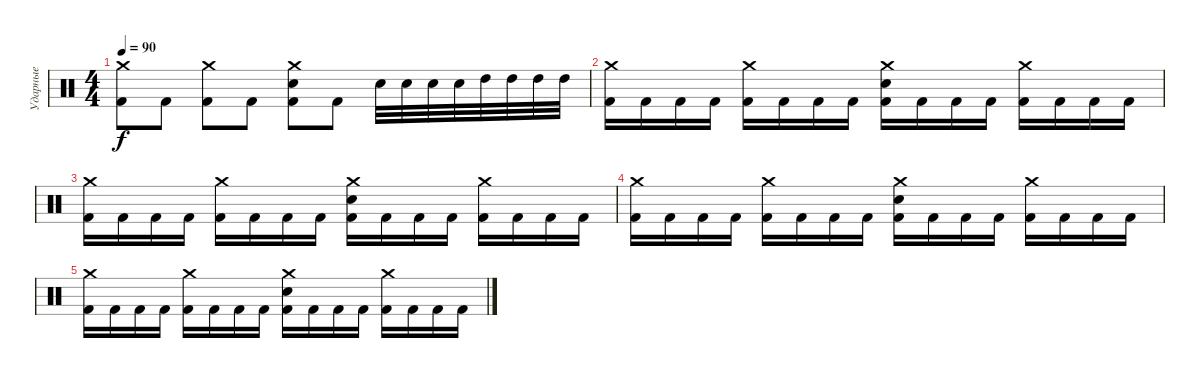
\track ("Ударные" "Ударные") {instrument percussion}
\staff {score}
\articulation defaults
\ts (4 4)
\tempo 90
\clef neutral
\ks c
("Crash medium (hit)" "Kick (hit) 2").8{dy f} "Kick (hit) 2".8 ("Crash medium (hit)" "Kick (hit) 2").8 "Kick (hit) 2".8 ("Crash medium (hit)" "Electric Snare (hit)" "Kick (hit) 2").8 "Kick (hit) 2".8 "Electric Snare (hit)".32 "Electric Snare (hit)".32 "Electric Snare (hit)".32 "Electric Snare (hit)".32 "High Tom (hit)".32 "High Tom (hit)".32 "High Tom (hit)".32 "High Tom (hit)".32 |
("Crash medium (hit)" "Kick (hit) 2").16 "Kick (hit) 2".16 "Kick (hit) 2".16 "Kick (hit) 2".16 ("Crash medium (hit)" "Kick (hit) 2").16 "Kick (hit) 2".16 "Kick (hit) 2".16 "Kick (hit) 2".16 ("Crash medium (hit)" "Electric Snare (hit)" "Kick (hit) 2").16 "Kick (hit) 2".16 "Kick (hit) 2".16 "Kick (hit) 2".16 ("Crash medium (hit)" "Kick (hit) 2").16 "Kick (hit) 2".16 "Kick (hit) 2".16 "Kick (hit) 2".16 |
("Crash medium (hit)" "Kick (hit) 2").16 "Kick (hit) 2".16 "Kick (hit) 2".16 "Kick (hit) 2".16 ("Crash medium (hit)" "Kick (hit) 2").16 "Kick (hit) 2".16 "Kick (hit) 2".16 "Kick (hit) 2".16 ("Crash medium (hit)" "Electric Snare (hit)" "Kick (hit) 2").16 "Kick (hit) 2".16 "Kick (hit) 2".16 "Kick (hit) 2".16 ("Crash medium (hit)" "Kick (hit) 2").16 "Kick (hit) 2".16 "Kick (hit) 2".16 "Kick (hit) 2".16 |
("Crash medium (hit)" "Kick (hit) 2").16 "Kick (hit) 2".16 "Kick (hit) 2".16 "Kick (hit) 2".16 ("Crash medium (hit)" "Kick (hit) 2").16 "Kick (hit) 2".16 "Kick (hit) 2".16 "Kick (hit) 2".16 ("Crash medium (hit)" "Electric Snare (hit)" "Kick (hit) 2").16 "Kick (hit) 2".16 "Kick (hit) 2".16 "Kick (hit) 2".16 ("Crash medium (hit)" "Kick (hit) 2").16 "Kick (hit) 2".16 "Kick (hit) 2".16 "Kick (hit) 2".16 |
("Crash medium (hit)" "Kick (hit) 2").16 "Kick (hit) 2".16 "Kick (hit) 2".16 "Kick (hit) 2".16 ("Crash medium (hit)" "Kick (hit) 2").16 "Kick (hit) 2".16 "Kick (hit) 2".16 "Kick (hit) 2".16 ("Crash medium (hit)" "Electric Snare (hit)" "Kick (hit) 2").16 "Kick (hit) 2".16 "Kick (hit) 2".16 "Kick (hit) 2".16 ("Crash medium (hit)" "Kick (hit) 2").16 "Kick (hit) 2".16 "Kick (hit) 2".16 "Kick (hit) 2".16
